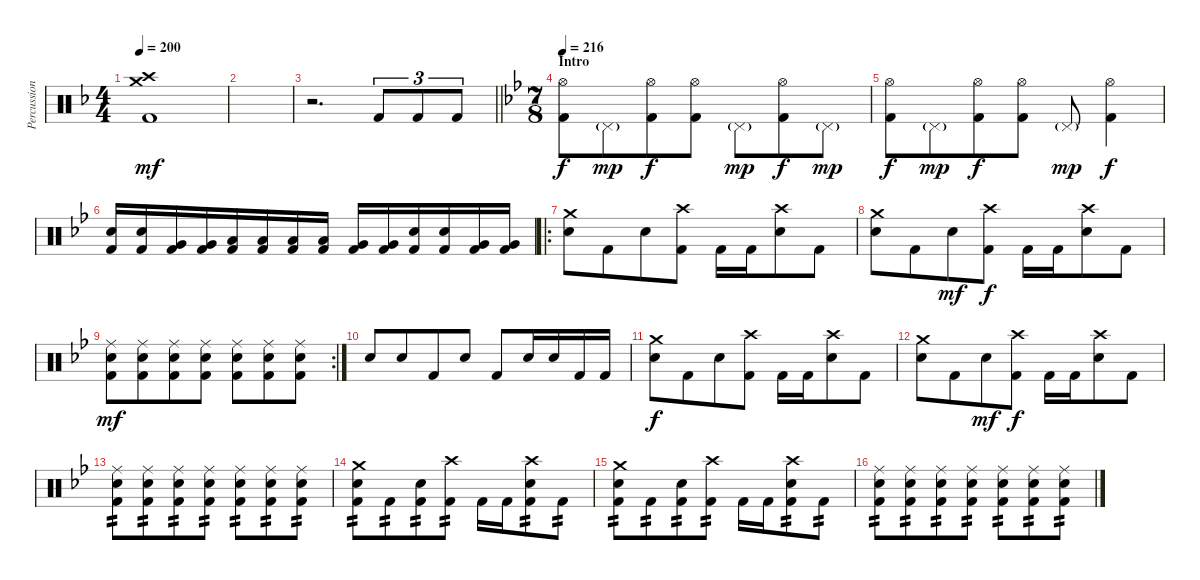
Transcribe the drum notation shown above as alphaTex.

\track ("Percussion" "Percussion") {instrument percussion}
\staff {score}
\articulation defaults
\ts (4 4)
\tempo 200
\clef neutral
\ks dminor
("Crash medium (hit)" "Crash high (hit)" "Kick (hit) 2").1{dy mf} |
|
\barLineRight lightlight
r.2{d} "Kick (hit) 2".8{tu (3 2)} "Kick (hit) 2".8{tu (3 2)} "Kick (hit) 2".8{tu (3 2)} |
\ts (7 8)
\section ("" "Intro")
\tempo 216
\ks gminor
("Hi-Hat (open)" "Kick (hit) 2").8{dy f} "Pedal Hi-Hat (hit)"{g}.8{dy mp} ("Hi-Hat (open)" "Kick (hit) 2").8{dy f} ("Hi-Hat (open)" "Kick (hit) 2").8 "Pedal Hi-Hat (hit)"{g}.8{dy mp} ("Hi-Hat (open)" "Kick (hit) 2").8{dy f} "Pedal Hi-Hat (hit)"{g}.8{dy mp} |
("Hi-Hat (open)" "Kick (hit) 2").8{dy f} "Pedal Hi-Hat (hit)"{g}.8{dy mp} ("Hi-Hat (open)" "Kick (hit) 2").8{dy f} ("Hi-Hat (open)" "Kick (hit) 2").8 "Pedal Hi-Hat (hit)"{g}.8{dy mp} ("Hi-Hat (open)" "Kick (hit) 2").4{dy f} |
("Electric Snare (hit)" "Kick (hit) 2").16 ("Electric Snare (hit)" "Kick (hit) 2").16 ("Very Low Tom (hit)" "Kick (hit) 2").16 ("Very Low Tom (hit)" "Kick (hit) 2").16 ("Low Floor Tom (hit)" "Kick (hit) 2").16 ("Low Floor Tom (hit)" "Kick (hit) 2").16 ("Low Floor Tom (hit)" "Kick (hit) 2").16 ("Low Floor Tom (hit)" "Kick (hit) 2").16 ("Very Low Tom (hit)" "Kick (hit) 2").16 ("Very Low Tom (hit)" "Kick (hit) 2").16 ("Electric Snare (hit)" "Kick (hit) 2").16 ("Electric Snare (hit)" "Kick (hit) 2").16 ("Very Low Tom (hit)" "Kick (hit) 2").16 ("Very Low Tom (hit)" "Kick (hit) 2").16 |
\ro
("Crash medium (hit)" "Electric Snare (hit)").8 "Kick (hit) 2".8 "Electric Snare (hit)".8 ("Crash high (hit)" "Kick (hit) 2").8 "Kick (hit) 2".16 "Kick (hit) 2".16 ("Crash high (hit)" "Electric Snare (hit)").8 "Kick (hit) 2".8 |
("Crash medium (hit)" "Electric Snare (hit)").8 "Kick (hit) 2".8 "Electric Snare (hit)".8{dy mf} ("Crash high (hit)" "Kick (hit) 2").8{dy f} "Kick (hit) 2".16 "Kick (hit) 2".16 ("Crash high (hit)" "Electric Snare (hit)").8 "Kick (hit) 2".8 |
\rc 2
("Ride (middle)" "Electric Snare (hit)" "Kick (hit) 2").8{dy mf} ("Ride (middle)" "Electric Snare (hit)" "Kick (hit) 2").8 ("Ride (middle)" "Electric Snare (hit)" "Kick (hit) 2").8 ("Ride (middle)" "Electric Snare (hit)" "Kick (hit) 2").8 ("Ride (middle)" "Electric Snare (hit)" "Kick (hit) 2").8 ("Ride (middle)" "Electric Snare (hit)" "Kick (hit) 2").8 ("Ride (middle)" "Electric Snare (hit)" "Kick (hit) 2").8 |
"Electric Snare (hit)".8 "Electric Snare (hit)".8 "Kick (hit) 2".8 "Electric Snare (hit)".8 "Kick (hit) 2".8 "Electric Snare (hit)".16 "Electric Snare (hit)".16 "Kick (hit) 2".16 "Kick (hit) 2".16 |
("Crash medium (hit)" "Electric Snare (hit)").8{dy f} "Kick (hit) 2".8 "Electric Snare (hit)".8 ("Crash high (hit)" "Kick (hit) 2").8 "Kick (hit) 2".16 "Kick (hit) 2".16 ("Crash high (hit)" "Electric Snare (hit)").8 "Kick (hit) 2".8 |
("Crash medium (hit)" "Electric Snare (hit)").8 "Kick (hit) 2".8 "Electric Snare (hit)".8{dy mf} ("Crash high (hit)" "Kick (hit) 2").8{dy f} "Kick (hit) 2".16 "Kick (hit) 2".16 ("Crash high (hit)" "Electric Snare (hit)").8 "Kick (hit) 2".8 |
("Ride (middle)" "Electric Snare (hit)" "Kick (hit) 2").8{tp 2} ("Ride (middle)" "Electric Snare (hit)" "Kick (hit) 2").8{tp 2} ("Ride (middle)" "Electric Snare (hit)" "Kick (hit) 2").8{tp 2} ("Ride (middle)" "Electric Snare (hit)" "Kick (hit) 2").8{tp 2} ("Ride (middle)" "Electric Snare (hit)" "Kick (hit) 2").8{tp 2} ("Ride (middle)" "Electric Snare (hit)" "Kick (hit) 2").8{tp 2} ("Ride (middle)" "Electric Snare (hit)" "Kick (hit) 2").8{tp 2} |
("Crash medium (hit)" "Electric Snare (hit)" "Kick (hit) 2").8{tp 2} "Kick (hit) 2".8{tp 2} ("Electric Snare (hit)" "Kick (hit) 2").8{tp 2} ("Crash high (hit)" "Kick (hit) 2").8{tp 2} "Kick (hit) 2".16 "Kick (hit) 2".16 ("Crash high (hit)" "Electric Snare (hit)" "Kick (hit) 2").8{tp 2} "Kick (hit) 2".8{tp 2} |
("Crash medium (hit)" "Electric Snare (hit)" "Kick (hit) 2").8{tp 2} "Kick (hit) 2".8{tp 2} ("Electric Snare (hit)" "Kick (hit) 2").8{tp 2} ("Crash high (hit)" "Kick (hit) 2").8{tp 2} "Kick (hit) 2".16 "Kick (hit) 2".16 ("Crash high (hit)" "Electric Snare (hit)" "Kick (hit) 2").8{tp 2} "Kick (hit) 2".8{tp 2} |
("Ride (middle)" "Electric Snare (hit)" "Kick (hit) 2").8{tp 2} ("Ride (middle)" "Electric Snare (hit)" "Kick (hit) 2").8{tp 2} ("Ride (middle)" "Electric Snare (hit)" "Kick (hit) 2").8{tp 2} ("Ride (middle)" "Electric Snare (hit)" "Kick (hit) 2").8{tp 2} ("Ride (middle)" "Electric Snare (hit)" "Kick (hit) 2").8{tp 2} ("Ride (middle)" "Electric Snare (hit)" "Kick (hit) 2").8{tp 2} ("Ride (middle)" "Electric Snare (hit)" "Kick (hit) 2").8{tp 2}
